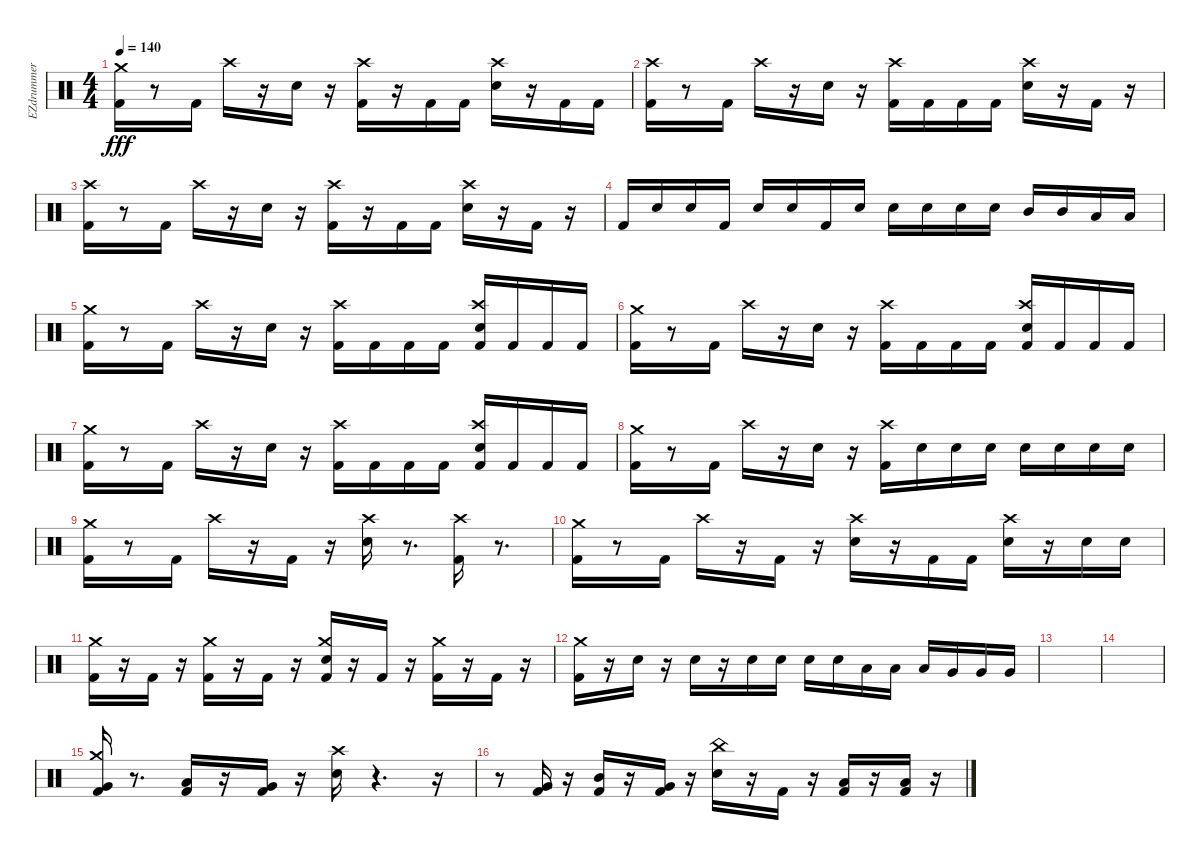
\track ("EZdrummer" "EZdrummer") {instrument percussion}
\staff {score}
\articulation defaults
\ts (4 4)
\tempo 140
\clef neutral
\ks c
("Kick (hit) 2" "Crash medium (hit)").16{dy fff} r.8 "Kick (hit) 2".16 "Crash high (hit)".16 r.16 "Snare (hit) 2".16 r.16 ("Kick (hit) 2" "Crash high (hit)").16 r.16 "Kick (hit) 2".16 "Kick (hit) 2".16 ("Snare (hit) 2" "Crash high (hit)").16 r.16 "Kick (hit) 2".16 "Kick (hit) 2".16 |
("Kick (hit) 2" "Crash high (hit)").16 r.8 "Kick (hit) 2".16 "Crash high (hit)".16 r.16 "Snare (hit) 2".16 r.16 ("Kick (hit) 2" "Crash high (hit)").16 "Kick (hit) 2".16 "Kick (hit) 2".16 "Kick (hit) 2".16 ("Snare (hit) 2" "Crash high (hit)").16 r.16 "Kick (hit) 2".16 r.16 |
("Kick (hit) 2" "Crash high (hit)").16 r.8 "Kick (hit) 2".16 "Crash high (hit)".16 r.16 "Snare (hit) 2".16 r.16 ("Kick (hit) 2" "Crash high (hit)").16 r.16 "Kick (hit) 2".16 "Kick (hit) 2".16 ("Snare (hit) 2" "Crash high (hit)").16 r.16 "Kick (hit) 2".16 r.16 |
"Kick (hit) 2".16 "Snare (hit) 2".16 "Snare (hit) 2".16 "Kick (hit) 2".16 "Snare (hit) 2".16 "Snare (hit) 2".16 "Kick (hit) 2".16 "Snare (hit) 2".16 "Snare (hit) 2".16 "Snare (hit) 2".16 "Snare (hit) 2".16 "Snare (hit) 2".16 "Mid Tom (hit)".16 "Mid Tom (hit)".16 "Low Tom (hit)".16 "Low Tom (hit)".16 |
("Kick (hit) 2" "Crash medium (hit)").16 r.8 "Kick (hit) 2".16 "Crash high (hit)".16 r.16 "Snare (hit) 2".16 r.16 ("Kick (hit) 2" "Crash high (hit)").16 "Kick (hit) 2".16 "Kick (hit) 2".16 "Kick (hit) 2".16 ("Kick (hit) 2" "Snare (hit) 2" "Crash high (hit)").16 "Kick (hit) 2".16 "Kick (hit) 2".16 "Kick (hit) 2".16 |
("Kick (hit) 2" "Crash medium (hit)").16 r.8 "Kick (hit) 2".16 "Crash high (hit)".16 r.16 "Snare (hit) 2".16 r.16 ("Kick (hit) 2" "Crash high (hit)").16 "Kick (hit) 2".16 "Kick (hit) 2".16 "Kick (hit) 2".16 ("Kick (hit) 2" "Snare (hit) 2" "Crash high (hit)").16 "Kick (hit) 2".16 "Kick (hit) 2".16 "Kick (hit) 2".16 |
("Kick (hit) 2" "Crash medium (hit)").16 r.8 "Kick (hit) 2".16 "Crash high (hit)".16 r.16 "Snare (hit) 2".16 r.16 ("Kick (hit) 2" "Crash high (hit)").16 "Kick (hit) 2".16 "Kick (hit) 2".16 "Kick (hit) 2".16 ("Kick (hit) 2" "Snare (hit) 2" "Crash high (hit)").16 "Kick (hit) 2".16 "Kick (hit) 2".16 "Kick (hit) 2".16 |
("Kick (hit) 2" "Crash medium (hit)").16 r.8 "Kick (hit) 2".16 "Crash high (hit)".16 r.16 "Snare (hit) 2".16 r.16 ("Kick (hit) 2" "Crash high (hit)").16 "Snare (hit) 2".16 "Snare (hit) 2".16 "Snare (hit) 2".16 "Snare (hit) 2".16 "Snare (hit) 2".16 "Snare (hit) 2".16 "Snare (hit) 2".16 |
("Kick (hit) 2" "Crash medium (hit)").16 r.8 "Kick (hit) 2".16 "Crash high (hit)".16 r.16 "Kick (hit) 2".16 r.16 ("Snare (hit) 2" "Crash high (hit)").16 r.8{d} ("Kick (hit) 2" "Crash high (hit)").16 r.8{d} |
("Kick (hit) 2" "Crash medium (hit)").16 r.8 "Kick (hit) 2".16 "Crash high (hit)".16 r.16 "Kick (hit) 2".16 r.16 ("Snare (hit) 2" "Crash high (hit)").16 r.16 "Kick (hit) 2".16 "Kick (hit) 2".16 ("Snare (hit) 2" "Crash high (hit)").16 r.16 "Snare (hit) 2".16 "Snare (hit) 2".16 |
("Kick (hit) 2" "Crash medium (hit)").16 r.16 "Kick (hit) 2".16 r.16 ("Kick (hit) 2" "Crash medium (hit)").16 r.16 "Kick (hit) 2".16 r.16 ("Kick (hit) 2" "Snare (hit) 2" "Crash medium (hit)").16 r.16 "Kick (hit) 2".16 r.16 ("Kick (hit) 2" "Crash medium (hit)").16 r.16 "Kick (hit) 2".16 r.16 |
("Kick (hit) 2" "Crash medium (hit)").16 r.16 "Snare (hit) 2".16 r.16 "Snare (hit) 2".16 r.16 "Snare (hit) 2".16 "Snare (hit) 2".16 "Snare (hit) 2".16 "Snare (hit) 2".16 "Low Tom (hit)".16 "Low Tom (hit)".16 "Low Tom (hit)".16 "Very Low Tom (hit)".16 "Very Low Tom (hit)".16 "Very Low Tom (hit)".16 |
|
|
("Crash medium (hit)" "Kick (hit) 2" "Very Low Tom (hit)").16 r.8{d} ("Kick (hit) 2" "Low Tom (hit)").16 r.16 ("Kick (hit) 2" "Very Low Tom (hit)").16 r.16 ("Crash high (hit)" "Snare (hit) 2").16 r.4{d} r.16 |
r.8 ("Kick (hit) 2" "Very Low Tom (hit)").16 r.16 ("Kick (hit) 2" "Mid Tom (hit)").16 r.16 ("Kick (hit) 2" "Very Low Tom (hit)").16 r.16 ("Snare (hit) 2" "China (hit)").16 r.16 "Kick (hit) 2".16 r.16 ("Kick (hit) 2" "Low Floor Tom (hit)").16 r.16 ("Kick (hit) 2" "Low Floor Tom (hit)").16 r.16
